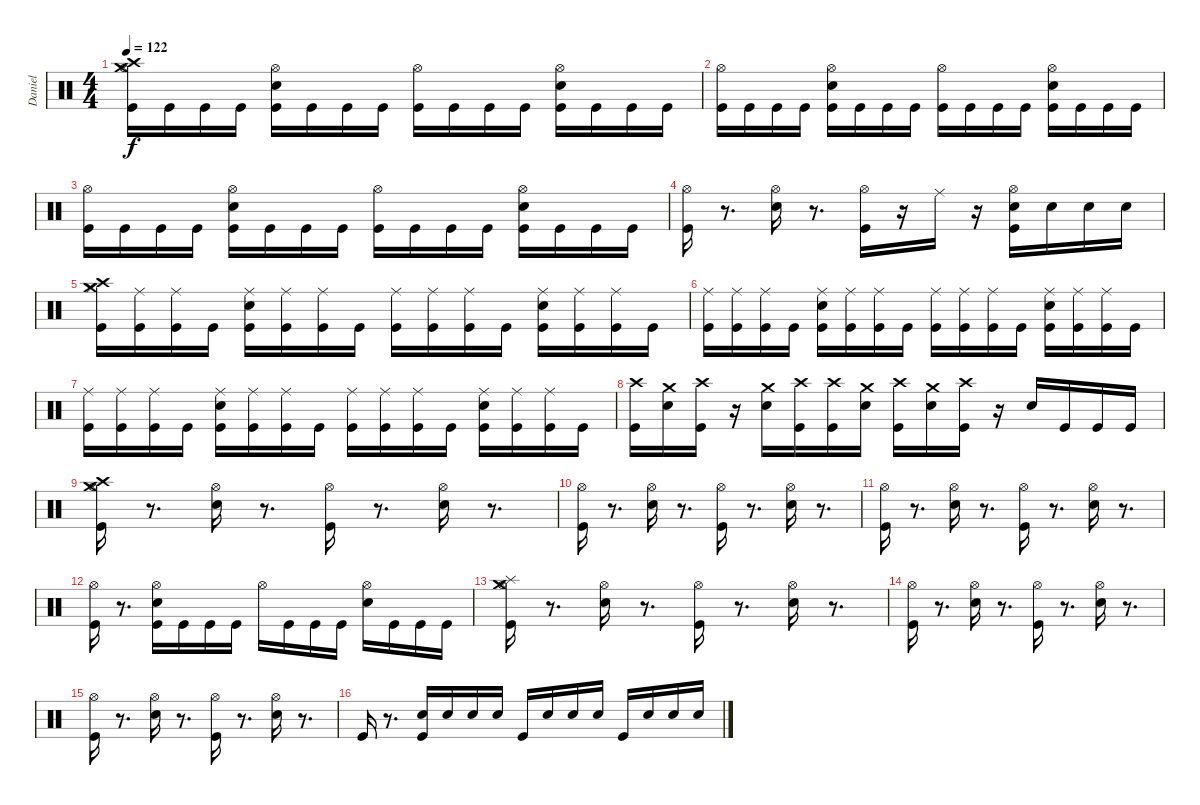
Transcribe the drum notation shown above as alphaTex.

\track ("Daniel" "Daniel") {instrument percussion}
\staff {score}
\articulation defaults
\ts (4 4)
\tempo 122
\clef neutral
\ks c
("Crash medium (hit)" "Hi-Hat (open)" "Crash high (hit)" "Kick (hit)").16{dy f} "Kick (hit)".16 "Kick (hit)".16 "Kick (hit)".16 ("Electric Snare (hit)" "Hi-Hat (open)" "Kick (hit)").16 "Kick (hit)".16 "Kick (hit)".16 "Kick (hit)".16 ("Hi-Hat (open)" "Kick (hit)").16 "Kick (hit)".16 "Kick (hit)".16 "Kick (hit)".16 ("Electric Snare (hit)" "Hi-Hat (open)" "Kick (hit)").16 "Kick (hit)".16 "Kick (hit)".16 "Kick (hit)".16 |
("Hi-Hat (open)" "Kick (hit)").16 "Kick (hit)".16 "Kick (hit)".16 "Kick (hit)".16 ("Electric Snare (hit)" "Hi-Hat (open)" "Kick (hit)").16 "Kick (hit)".16 "Kick (hit)".16 "Kick (hit)".16 ("Hi-Hat (open)" "Kick (hit)").16 "Kick (hit)".16 "Kick (hit)".16 "Kick (hit)".16 ("Electric Snare (hit)" "Hi-Hat (open)" "Kick (hit)").16 "Kick (hit)".16 "Kick (hit)".16 "Kick (hit)".16 |
("Hi-Hat (open)" "Kick (hit)").16 "Kick (hit)".16 "Kick (hit)".16 "Kick (hit)".16 ("Electric Snare (hit)" "Hi-Hat (open)" "Kick (hit)").16 "Kick (hit)".16 "Kick (hit)".16 "Kick (hit)".16 ("Hi-Hat (open)" "Kick (hit)").16 "Kick (hit)".16 "Kick (hit)".16 "Kick (hit)".16 ("Electric Snare (hit)" "Hi-Hat (open)" "Kick (hit)").16 "Kick (hit)".16 "Kick (hit)".16 "Kick (hit)".16 |
("Hi-Hat (open)" "Kick (hit)").16 r.8{d} ("Electric Snare (hit)" "Hi-Hat (open)").16 r.8{d} ("Hi-Hat (open)" "Kick (hit)").16 r.16 "Ride (middle)".16 r.16 ("Electric Snare (hit)" "Hi-Hat (open)" "Kick (hit)").16 "Snare (hit) 2".16 "Snare (hit) 2".16 "Electric Snare (hit)".16 |
("Hi-Hat (closed)" "Crash high (hit)" "Crash medium (hit)" "Kick (hit)").16 ("Ride (middle)" "Kick (hit)").16 ("Ride (middle)" "Kick (hit)").16 "Kick (hit)".16 ("Ride (middle)" "Electric Snare (hit)" "Kick (hit)").16 ("Ride (middle)" "Kick (hit)").16 ("Ride (middle)" "Kick (hit)").16 "Kick (hit)".16 ("Ride (middle)" "Kick (hit)").16 ("Ride (middle)" "Kick (hit)").16 ("Ride (middle)" "Kick (hit)").16 "Kick (hit)".16 ("Ride (middle)" "Electric Snare (hit)" "Kick (hit)").16 ("Ride (middle)" "Kick (hit)").16 ("Ride (middle)" "Kick (hit)").16 "Kick (hit)".16 |
("Ride (middle)" "Kick (hit)").16 ("Ride (middle)" "Kick (hit)").16 ("Ride (middle)" "Kick (hit)").16 "Kick (hit)".16 ("Ride (middle)" "Electric Snare (hit)" "Kick (hit)").16 ("Ride (middle)" "Kick (hit)").16 ("Ride (middle)" "Kick (hit)").16 "Kick (hit)".16 ("Ride (middle)" "Kick (hit)").16 ("Ride (middle)" "Kick (hit)").16 ("Ride (middle)" "Kick (hit)").16 "Kick (hit)".16 ("Electric Snare (hit)" "Ride (middle)" "Kick (hit)").16 ("Ride (middle)" "Kick (hit)").16 ("Ride (middle)" "Kick (hit)").16 "Kick (hit)".16 |
("Ride (middle)" "Kick (hit)").16 ("Ride (middle)" "Kick (hit)").16 ("Ride (middle)" "Kick (hit)").16 "Kick (hit)".16 ("Electric Snare (hit)" "Ride (middle)" "Kick (hit)").16 ("Ride (middle)" "Kick (hit)").16 ("Ride (middle)" "Kick (hit)").16 "Kick (hit)".16 ("Ride (middle)" "Kick (hit)").16 ("Ride (middle)" "Kick (hit)").16 ("Ride (middle)" "Kick (hit)").16 "Kick (hit)".16 ("Electric Snare (hit)" "Ride (middle)" "Kick (hit)").16 ("Ride (middle)" "Kick (hit)").16 ("Ride (middle)" "Kick (hit)").16 "Kick (hit)".16 |
("Crash high (hit)" "Kick (hit)").16 ("Crash medium (hit)" "Electric Snare (hit)").16 ("Crash high (hit)" "Kick (hit)").16 r.16 ("Crash medium (hit)" "Electric Snare (hit)").16 ("Crash high (hit)" "Kick (hit)").16 ("Crash high (hit)" "Kick (hit)").16 ("Crash medium (hit)" "Electric Snare (hit)").16 ("Crash high (hit)" "Kick (hit)").16 ("Crash medium (hit)" "Electric Snare (hit)").16 ("Crash high (hit)" "Kick (hit)").16 r.16 "Electric Snare (hit)".16 "Kick (hit)".16 "Kick (hit)".16 "Kick (hit)".16 |
("Crash medium (hit)" "Crash high (hit)" "Kick (hit)" "Hi-Hat (open)").16 r.8{d} ("Electric Snare (hit)" "Hi-Hat (open)").16 r.8{d} ("Kick (hit)" "Hi-Hat (open)").16 r.8{d} ("Electric Snare (hit)" "Hi-Hat (open)").16 r.8{d} |
("Kick (hit)" "Hi-Hat (open)").16 r.8{d} ("Electric Snare (hit)" "Hi-Hat (open)").16 r.8{d} ("Kick (hit)" "Hi-Hat (open)").16 r.8{d} ("Electric Snare (hit)" "Hi-Hat (open)").16 r.8{d} |
("Kick (hit)" "Hi-Hat (open)").16 r.8{d} ("Electric Snare (hit)" "Hi-Hat (open)").16 r.8{d} ("Kick (hit)" "Hi-Hat (open)").16 r.8{d} ("Electric Snare (hit)" "Hi-Hat (open)").16 r.8{d} |
("Kick (hit)" "Hi-Hat (open)").16 r.8{d} ("Kick (hit)" "Electric Snare (hit)" "Hi-Hat (open)").16 "Kick (hit)".16 "Kick (hit)".16 "Kick (hit)".16 "Hi-Hat (open)".16 "Kick (hit)".16 "Kick (hit)".16 "Kick (hit)".16 ("Electric Snare (hit)" "Hi-Hat (open)").16 "Kick (hit)".16 "Kick (hit)".16 "Kick (hit)".16 |
("Splash (hit)" "Crash medium (hit)" "Kick (hit)" "Hi-Hat (open)").16 r.8{d} ("Electric Snare (hit)" "Hi-Hat (open)").16 r.8{d} ("Kick (hit)" "Hi-Hat (open)").16 r.8{d} ("Electric Snare (hit)" "Hi-Hat (open)").16 r.8{d} |
("Kick (hit)" "Hi-Hat (open)").16 r.8{d} ("Electric Snare (hit)" "Hi-Hat (open)").16 r.8{d} ("Kick (hit)" "Hi-Hat (open)").16 r.8{d} ("Electric Snare (hit)" "Hi-Hat (open)").16 r.8{d} |
("Kick (hit)" "Hi-Hat (open)").16 r.8{d} ("Electric Snare (hit)" "Hi-Hat (open)").16 r.8{d} ("Kick (hit)" "Hi-Hat (open)").16 r.8{d} ("Electric Snare (hit)" "Hi-Hat (open)").16 r.8{d} |
"Kick (hit)".16 r.8{d} ("Kick (hit)" "Electric Snare (hit)").16 "Electric Snare (hit)".16 "Electric Snare (hit)".16 "Electric Snare (hit)".16 "Kick (hit)".16 "Electric Snare (hit)".16 "Electric Snare (hit)".16 "Electric Snare (hit)".16 "Kick (hit)".16 "Electric Snare (hit)".16 "Electric Snare (hit)".16 "Electric Snare (hit)".16
